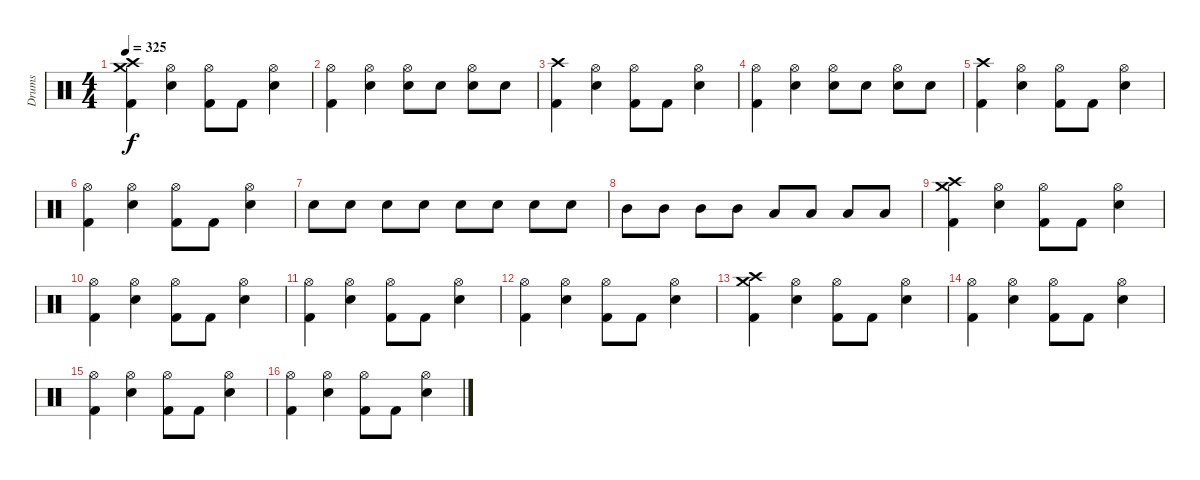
\track ("Drums" "Drums") {instrument percussion}
\staff {score}
\articulation defaults
\ts (4 4)
\tempo 325
\clef neutral
\ks c
("Kick (hit) 2" "Crash medium (hit)" "Crash high (hit)").4{dy f} ("Snare (hit) 2" "Hi-Hat (open)").4 ("Kick (hit) 2" "Hi-Hat (open)").8 "Kick (hit) 2".8 ("Snare (hit) 2" "Hi-Hat (open)").4 |
("Kick (hit) 2" "Hi-Hat (open)").4 ("Electric Snare (hit)" "Hi-Hat (open)").4 ("Electric Snare (hit)" "Hi-Hat (open)").8 "Electric Snare (hit)".8 ("Electric Snare (hit)" "Hi-Hat (open)").8 "Electric Snare (hit)".8 |
("Crash high (hit)" "Kick (hit) 2").4 ("Electric Snare (hit)" "Hi-Hat (open)").4 ("Kick (hit) 2" "Hi-Hat (open)").8 "Kick (hit) 2".8 ("Electric Snare (hit)" "Hi-Hat (open)").4 |
("Kick (hit) 2" "Hi-Hat (open)").4 ("Electric Snare (hit)" "Hi-Hat (open)").4 ("Electric Snare (hit)" "Hi-Hat (open)").8 "Electric Snare (hit)".8 ("Electric Snare (hit)" "Hi-Hat (open)").8 "Electric Snare (hit)".8 |
("Crash high (hit)" "Kick (hit) 2").4 ("Electric Snare (hit)" "Hi-Hat (open)").4 ("Kick (hit) 2" "Hi-Hat (open)").8 "Kick (hit) 2".8 ("Electric Snare (hit)" "Hi-Hat (open)").4 |
("Kick (hit) 2" "Hi-Hat (open)").4 ("Hi-Hat (open)" "Electric Snare (hit)").4 ("Hi-Hat (open)" "Kick (hit) 2").8 "Kick (hit) 2".8 ("Hi-Hat (open)" "Electric Snare (hit)").4 |
"Electric Snare (hit)".8 "Electric Snare (hit)".8 "Electric Snare (hit)".8 "Electric Snare (hit)".8 "Electric Snare (hit)".8 "Electric Snare (hit)".8 "Electric Snare (hit)".8 "Electric Snare (hit)".8 |
"Mid Tom (hit)".8 "Mid Tom (hit)".8 "Mid Tom (hit)".8 "Mid Tom (hit)".8 "Low Tom (hit)".8 "Low Tom (hit)".8 "Low Tom (hit)".8 "Low Tom (hit)".8 |
("Crash high (hit)" "Crash medium (hit)" "Kick (hit) 2").4 ("Electric Snare (hit)" "Hi-Hat (open)").4 ("Kick (hit) 2" "Hi-Hat (open)").8 "Kick (hit) 2".8 ("Electric Snare (hit)" "Hi-Hat (open)").4 |
("Kick (hit) 2" "Hi-Hat (open)").4 ("Electric Snare (hit)" "Hi-Hat (open)").4 ("Kick (hit) 2" "Hi-Hat (open)").8 "Kick (hit) 2".8 ("Electric Snare (hit)" "Hi-Hat (open)").4 |
("Kick (hit) 2" "Hi-Hat (open)").4 ("Electric Snare (hit)" "Hi-Hat (open)").4 ("Kick (hit) 2" "Hi-Hat (open)").8 "Kick (hit) 2".8 ("Electric Snare (hit)" "Hi-Hat (open)").4 |
("Kick (hit) 2" "Hi-Hat (open)").4 ("Electric Snare (hit)" "Hi-Hat (open)").4 ("Kick (hit) 2" "Hi-Hat (open)").8 "Kick (hit) 2".8 ("Electric Snare (hit)" "Hi-Hat (open)").4 |
("Crash high (hit)" "Crash medium (hit)" "Kick (hit) 2").4 ("Electric Snare (hit)" "Hi-Hat (open)").4 ("Kick (hit) 2" "Hi-Hat (open)").8 "Kick (hit) 2".8 ("Electric Snare (hit)" "Hi-Hat (open)").4 |
("Kick (hit) 2" "Hi-Hat (open)").4 ("Electric Snare (hit)" "Hi-Hat (open)").4 ("Kick (hit) 2" "Hi-Hat (open)").8 "Kick (hit) 2".8 ("Electric Snare (hit)" "Hi-Hat (open)").4 |
("Kick (hit) 2" "Hi-Hat (open)").4 ("Electric Snare (hit)" "Hi-Hat (open)").4 ("Kick (hit) 2" "Hi-Hat (open)").8 "Kick (hit) 2".8 ("Electric Snare (hit)" "Hi-Hat (open)").4 |
("Kick (hit) 2" "Hi-Hat (open)").4 ("Electric Snare (hit)" "Hi-Hat (open)").4 ("Kick (hit) 2" "Hi-Hat (open)").8 "Kick (hit) 2".8 ("Electric Snare (hit)" "Hi-Hat (open)").4
